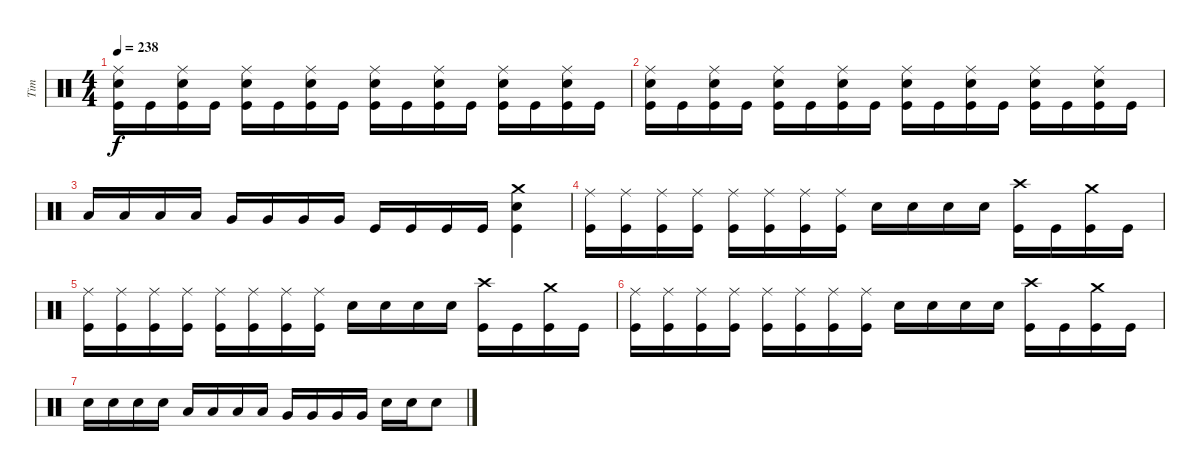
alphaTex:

\track ("Tim" "Tim") {instrument percussion}
\staff {score}
\articulation defaults
\ts (4 4)
\tempo 238
\clef neutral
\ks c
("Ride (middle)" "Electric Snare (hit)" "Kick (hit)").16{dy f} "Kick (hit)".16 ("Ride (middle)" "Electric Snare (hit)" "Kick (hit)").16 "Kick (hit)".16 ("Ride (middle)" "Electric Snare (hit)" "Kick (hit)").16 "Kick (hit)".16 ("Ride (middle)" "Electric Snare (hit)" "Kick (hit)").16 "Kick (hit)".16 ("Ride (middle)" "Electric Snare (hit)" "Kick (hit)").16 "Kick (hit)".16 ("Ride (middle)" "Electric Snare (hit)" "Kick (hit)").16 "Kick (hit)".16 ("Ride (middle)" "Electric Snare (hit)" "Kick (hit)").16 "Kick (hit)".16 ("Ride (middle)" "Electric Snare (hit)" "Kick (hit)").16 "Kick (hit)".16 |
("Ride (middle)" "Electric Snare (hit)" "Kick (hit)").16 "Kick (hit)".16 ("Ride (middle)" "Electric Snare (hit)" "Kick (hit)").16 "Kick (hit)".16 ("Ride (middle)" "Electric Snare (hit)" "Kick (hit)").16 "Kick (hit)".16 ("Ride (middle)" "Electric Snare (hit)" "Kick (hit)").16 "Kick (hit)".16 ("Ride (middle)" "Electric Snare (hit)" "Kick (hit)").16 "Kick (hit)".16 ("Ride (middle)" "Electric Snare (hit)" "Kick (hit)").16 "Kick (hit)".16 ("Ride (middle)" "Electric Snare (hit)" "Kick (hit)").16 "Kick (hit)".16 ("Ride (middle)" "Electric Snare (hit)" "Kick (hit)").16 "Kick (hit)".16 |
"Low Tom (hit)".16 "Low Tom (hit)".16 "Low Tom (hit)".16 "Low Tom (hit)".16 "Very Low Tom (hit)".16 "Very Low Tom (hit)".16 "Very Low Tom (hit)".16 "Very Low Tom (hit)".16 "Kick (hit)".16 "Kick (hit)".16 "Kick (hit)".16 "Kick (hit)".16 ("Crash medium (hit)" "Electric Snare (hit)" "Kick (hit)").4 |
("Ride (middle)" "Kick (hit)").16 ("Ride (middle)" "Kick (hit)").16 ("Ride (middle)" "Kick (hit)").16 ("Ride (middle)" "Kick (hit)").16 ("Ride (middle)" "Kick (hit)").16 ("Ride (middle)" "Kick (hit)").16 ("Ride (middle)" "Kick (hit)").16 ("Ride (middle)" "Kick (hit)").16 "Electric Snare (hit)".16 "Electric Snare (hit)".16 "Electric Snare (hit)".16 "Electric Snare (hit)".16 ("Crash high (hit)" "Kick (hit)").16 "Kick (hit)".16 ("Crash medium (hit)" "Kick (hit)").16 "Kick (hit)".16 |
("Ride (middle)" "Kick (hit)").16 ("Ride (middle)" "Kick (hit)").16 ("Ride (middle)" "Kick (hit)").16 ("Ride (middle)" "Kick (hit)").16 ("Ride (middle)" "Kick (hit)").16 ("Ride (middle)" "Kick (hit)").16 ("Ride (middle)" "Kick (hit)").16 ("Ride (middle)" "Kick (hit)").16 "Electric Snare (hit)".16 "Electric Snare (hit)".16 "Electric Snare (hit)".16 "Electric Snare (hit)".16 ("Crash high (hit)" "Kick (hit)").16 "Kick (hit)".16 ("Crash medium (hit)" "Kick (hit)").16 "Kick (hit)".16 |
("Ride (middle)" "Kick (hit)").16 ("Ride (middle)" "Kick (hit)").16 ("Ride (middle)" "Kick (hit)").16 ("Ride (middle)" "Kick (hit)").16 ("Ride (middle)" "Kick (hit)").16 ("Ride (middle)" "Kick (hit)").16 ("Ride (middle)" "Kick (hit)").16 ("Ride (middle)" "Kick (hit)").16 "Electric Snare (hit)".16 "Electric Snare (hit)".16 "Electric Snare (hit)".16 "Electric Snare (hit)".16 ("Crash high (hit)" "Kick (hit)").16 "Kick (hit)".16 ("Crash medium (hit)" "Kick (hit)").16 "Kick (hit)".16 |
"Electric Snare (hit)".16 "Electric Snare (hit)".16 "Electric Snare (hit)".16 "Electric Snare (hit)".16 "Low Tom (hit)".16 "Low Tom (hit)".16 "Low Tom (hit)".16 "Low Tom (hit)".16 "Very Low Tom (hit)".16 "Very Low Tom (hit)".16 "Very Low Tom (hit)".16 "Very Low Tom (hit)".16 "Electric Snare (hit)".16 "Electric Snare (hit)".16 "Electric Snare (hit)".8
